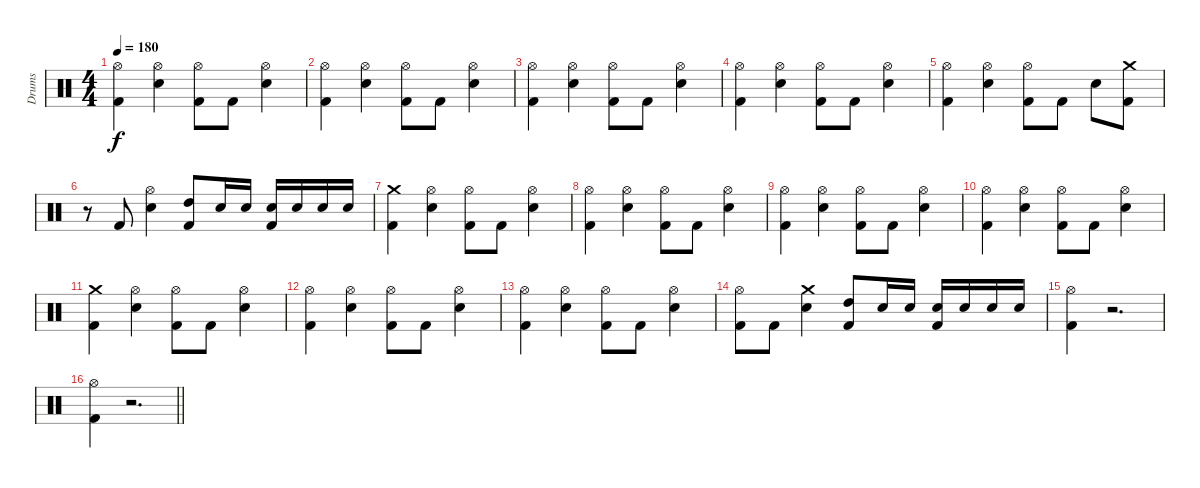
\track ("Drums" "Drums") {instrument percussion}
\staff {score}
\articulation defaults
\ts (4 4)
\tempo 180
\clef neutral
\ks c
("Hi-Hat (open)" "Kick (hit) 2").4{dy f} ("Hi-Hat (open)" "Snare (hit) 2").4 ("Hi-Hat (open)" "Kick (hit) 2").8 "Kick (hit) 2".8 ("Hi-Hat (open)" "Snare (hit) 2").4 |
("Hi-Hat (open)" "Kick (hit) 2").4 ("Hi-Hat (open)" "Snare (hit) 2").4 ("Hi-Hat (open)" "Kick (hit) 2").8 "Kick (hit) 2".8 ("Hi-Hat (open)" "Snare (hit) 2").4 |
("Hi-Hat (open)" "Kick (hit) 2").4 ("Hi-Hat (open)" "Snare (hit) 2").4 ("Hi-Hat (open)" "Kick (hit) 2").8 "Kick (hit) 2".8 ("Hi-Hat (open)" "Snare (hit) 2").4 |
("Hi-Hat (open)" "Kick (hit) 2").4 ("Hi-Hat (open)" "Snare (hit) 2").4 ("Hi-Hat (open)" "Kick (hit) 2").8 "Kick (hit) 2".8 ("Hi-Hat (open)" "Snare (hit) 2").4 |
("Hi-Hat (open)" "Kick (hit) 2").4 ("Hi-Hat (open)" "Snare (hit) 2").4 ("Hi-Hat (open)" "Kick (hit) 2").8 "Kick (hit) 2".8 "Snare (hit) 2".8 ("Crash medium (hit)" "Kick (hit) 2").8 |
r.8 "Kick (hit) 2".8 ("Hi-Hat (open)" "Snare (hit) 2").4 ("High Tom (hit)" "Kick (hit) 2").8 "Snare (hit) 2".16 "Snare (hit) 2".16 ("Snare (hit) 2" "Kick (hit) 2").16 "Snare (hit) 2".16 "Snare (hit) 2".16 "Snare (hit) 2".16 |
("Crash medium (hit)" "Kick (hit) 2").4 ("Hi-Hat (open)" "Snare (hit) 2").4 ("Hi-Hat (open)" "Kick (hit) 2").8 "Kick (hit) 2".8 ("Hi-Hat (open)" "Snare (hit) 2").4 |
("Hi-Hat (open)" "Kick (hit) 2").4 ("Hi-Hat (open)" "Snare (hit) 2").4 ("Hi-Hat (open)" "Kick (hit) 2").8 "Kick (hit) 2".8 ("Hi-Hat (open)" "Snare (hit) 2").4 |
("Hi-Hat (open)" "Kick (hit) 2").4 ("Hi-Hat (open)" "Snare (hit) 2").4 ("Hi-Hat (open)" "Kick (hit) 2").8 "Kick (hit) 2".8 ("Hi-Hat (open)" "Snare (hit) 2").4 |
("Hi-Hat (open)" "Kick (hit) 2").4 ("Hi-Hat (open)" "Snare (hit) 2").4 ("Hi-Hat (open)" "Kick (hit) 2").8 "Kick (hit) 2".8 ("Hi-Hat (open)" "Snare (hit) 2").4 |
("Crash medium (hit)" "Kick (hit) 2").4 ("Hi-Hat (open)" "Snare (hit) 2").4 ("Hi-Hat (open)" "Kick (hit) 2").8 "Kick (hit) 2".8 ("Hi-Hat (open)" "Snare (hit) 2").4 |
("Hi-Hat (open)" "Kick (hit) 2").4 ("Hi-Hat (open)" "Snare (hit) 2").4 ("Hi-Hat (open)" "Kick (hit) 2").8 "Kick (hit) 2".8 ("Hi-Hat (open)" "Snare (hit) 2").4 |
("Hi-Hat (open)" "Kick (hit) 2").4 ("Hi-Hat (open)" "Snare (hit) 2").4 ("Hi-Hat (open)" "Kick (hit) 2").8 "Kick (hit) 2".8 ("Hi-Hat (open)" "Snare (hit) 2").4 |
("Hi-Hat (open)" "Kick (hit) 2").8 "Kick (hit) 2".8 ("Crash medium (hit)" "Snare (hit) 2").4 ("High Tom (hit)" "Kick (hit) 2").8 "Snare (hit) 2".16 "Snare (hit) 2".16 ("Snare (hit) 2" "Kick (hit) 2").16 "Snare (hit) 2".16 "Snare (hit) 2".16 "Snare (hit) 2".16 |
("Hi-Hat (open)" "Kick (hit) 2").4 r.2{d} |
\barLineRight lightlight
("Hi-Hat (open)" "Kick (hit) 2").4 r.2{d}
